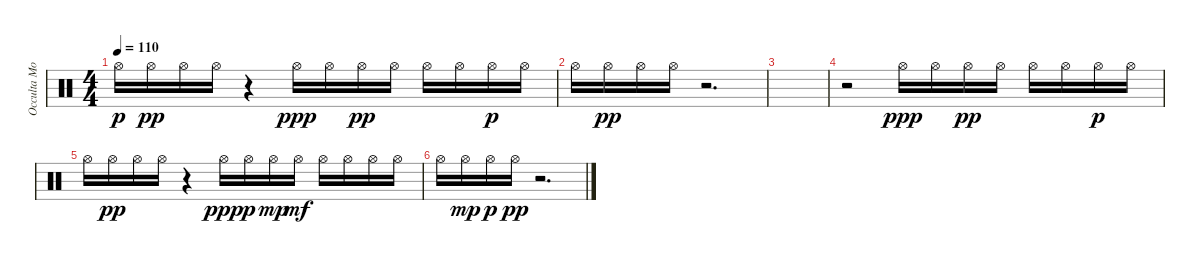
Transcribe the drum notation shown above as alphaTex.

\track ("Occulta Mors (Drums)" "Occulta Mo") {instrument percussion}
\staff {score}
\articulation defaults
\ts (4 4)
\tempo 110
\clef neutral
\ks c "Hi-Hat (open)".16{dy p} "Hi-Hat (open)".16{dy pp} "Hi-Hat (open)".16 "Hi-Hat (open)".16
r.4 "Hi-Hat (open)".16{dy ppp} "Hi-Hat (open)".16 "Hi-Hat (open)".16{dy pp} "Hi-Hat (open)".16 "Hi-Hat (open)".16 "Hi-Hat (open)".16 "Hi-Hat (open)".16{dy p} "Hi-Hat (open)".16 |
"Hi-Hat (open)".16 "Hi-Hat (open)".16{dy pp} "Hi-Hat (open)".16 "Hi-Hat (open)".16 r.2{d} |
|
r.2 "Hi-Hat (open)".16{dy ppp} "Hi-Hat (open)".16 "Hi-Hat (open)".16{dy pp} "Hi-Hat (open)".16 "Hi-Hat (open)".16 "Hi-Hat (open)".16 "Hi-Hat (open)".16{dy p} "Hi-Hat (open)".16 |
"Hi-Hat (open)".16 "Hi-Hat (open)".16{dy pp} "Hi-Hat (open)".16 "Hi-Hat (open)".16 r.4 "Hi-Hat (open)".16{dy ppp} "Hi-Hat (open)".16{dy p} "Hi-Hat (open)".16{dy mp} "Hi-Hat (open)".16{dy mf} "Hi-Hat (open)".16 "Hi-Hat (open)".16 "Hi-Hat (open)".16 "Hi-Hat (open)".16 |
"Hi-Hat (open)".16 "Hi-Hat (open)".16{dy mp} "Hi-Hat (open)".16{dy p} "Hi-Hat (open)".16{dy pp} r.2{d}
